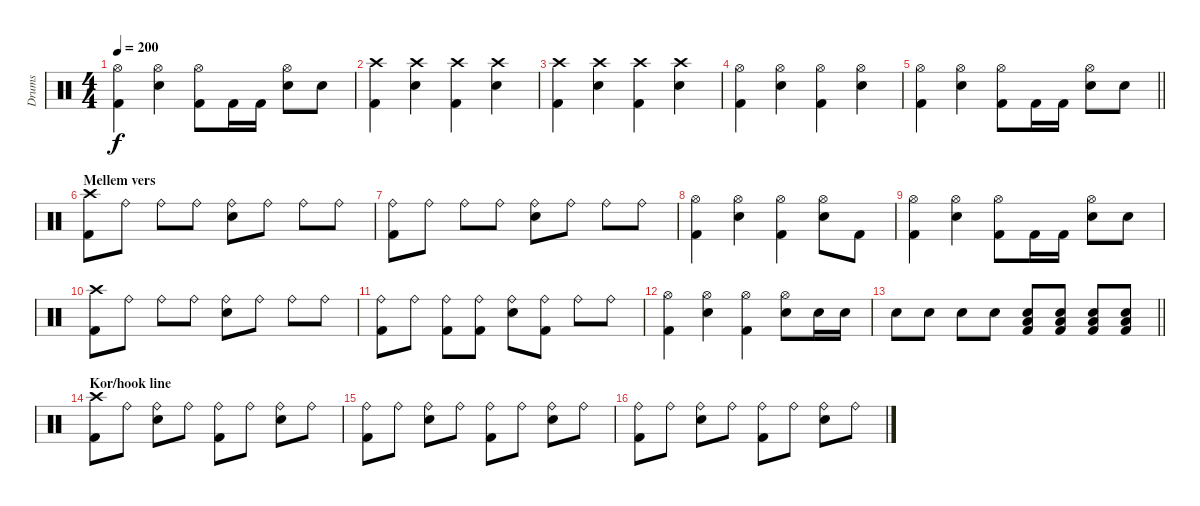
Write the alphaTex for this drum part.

\track ("Drums" "Drums") {instrument percussion}
\staff {score}
\articulation defaults
\ts (4 4)
\tempo 200
\clef neutral
\ks c
("Hi-Hat (open)" "Kick (hit) 2").4{dy f} ("Hi-Hat (open)" "Snare (hit) 2").4 ("Hi-Hat (open)" "Kick (hit) 2").8 "Kick (hit) 2".16 "Kick (hit) 2".16 ("Hi-Hat (open)" "Snare (hit) 2").8 "Snare (hit) 2".8 |
("Crash high (hit)" "Kick (hit) 2").4 ("Crash high (hit)" "Snare (hit) 2").4 ("Crash high (hit)" "Kick (hit) 2").4 ("Crash high (hit)" "Snare (hit) 2").4 |
("Crash high (hit)" "Kick (hit) 2").4 ("Crash high (hit)" "Snare (hit) 2").4 ("Crash high (hit)" "Kick (hit) 2").4 ("Crash high (hit)" "Snare (hit) 2").4 |
("Hi-Hat (open)" "Kick (hit) 2").4 ("Hi-Hat (open)" "Snare (hit) 2").4 ("Hi-Hat (open)" "Kick (hit) 2").4 ("Hi-Hat (open)" "Snare (hit) 2").4 |
\barLineRight lightlight
("Hi-Hat (open)" "Kick (hit) 2").4 ("Hi-Hat (open)" "Snare (hit) 2").4 ("Hi-Hat (open)" "Kick (hit) 2").8 "Kick (hit) 2".16 "Kick (hit) 2".16 ("Hi-Hat (open)" "Snare (hit) 2").8 "Snare (hit) 2".8 |
\section ("" "Mellem vers")
("Crash high (hit)" "Kick (hit) 2").8 "Ride (bell)".8 "Ride (bell)".8 "Ride (bell)".8 ("Ride (bell)" "Snare (hit) 2").8 "Ride (bell)".8 "Ride (bell)".8 "Ride (bell)".8 |
("Ride (bell)" "Kick (hit) 2").8 "Ride (bell)".8 "Ride (bell)".8 "Ride (bell)".8 ("Ride (bell)" "Snare (hit) 2").8 "Ride (bell)".8 "Ride (bell)".8 "Ride (bell)".8 |
("Hi-Hat (open)" "Kick (hit) 2").4 ("Hi-Hat (open)" "Snare (hit) 2").4 ("Hi-Hat (open)" "Kick (hit) 2").4 ("Hi-Hat (open)" "Snare (hit) 2").8 "Kick (hit) 2".8 |
("Hi-Hat (open)" "Kick (hit) 2").4 ("Hi-Hat (open)" "Snare (hit) 2").4 ("Hi-Hat (open)" "Kick (hit) 2").8 "Kick (hit) 2".16 "Kick (hit) 2".16 ("Hi-Hat (open)" "Snare (hit) 2").8 "Snare (hit) 2".8 |
("Crash high (hit)" "Kick (hit) 2").8 "Ride (bell)".8 "Ride (bell)".8 "Ride (bell)".8 ("Ride (bell)" "Snare (hit) 2").8 "Ride (bell)".8 "Ride (bell)".8 "Ride (bell)".8 |
("Ride (bell)" "Kick (hit) 2").8 "Ride (bell)".8 ("Ride (bell)" "Kick (hit) 2").8 ("Ride (bell)" "Kick (hit) 2").8 ("Ride (bell)" "Snare (hit) 2").8 ("Ride (bell)" "Kick (hit) 2").8 "Ride (bell)".8 "Ride (bell)".8 |
("Hi-Hat (open)" "Kick (hit) 2").4 ("Hi-Hat (open)" "Snare (hit) 2").4 ("Hi-Hat (open)" "Kick (hit) 2").4 ("Hi-Hat (open)" "Snare (hit) 2").8 "Snare (hit) 2".16 "Snare (hit) 2".16 |
\barLineRight lightlight "Snare (hit) 2".8 "Snare (hit) 2".8 "Snare (hit) 2".8 "Snare (hit) 2".8
("Low Floor Tom (hit)" "Snare (hit) 2" "Kick (hit) 2").8 ("Low Floor Tom (hit)" "Snare (hit) 2" "Kick (hit) 2").8 ("Low Floor Tom (hit)" "Snare (hit) 2" "Kick (hit) 2").8 ("Low Floor Tom (hit)" "Snare (hit) 2" "Kick (hit) 2").8 |
\section ("" "Kor/hook line")
("Crash high (hit)" "Kick (hit) 2").8 "Ride (bell)".8 ("Ride (bell)" "Snare (hit) 2").8 "Ride (bell)".8 ("Ride (bell)" "Kick (hit) 2").8 "Ride (bell)".8 ("Ride (bell)" "Snare (hit) 2").8 "Ride (bell)".8 |
("Ride (bell)" "Kick (hit) 2").8 "Ride (bell)".8 ("Ride (bell)" "Snare (hit) 2").8 "Ride (bell)".8 ("Ride (bell)" "Kick (hit) 2").8 "Ride (bell)".8 ("Ride (bell)" "Snare (hit) 2").8 "Ride (bell)".8 |
("Ride (bell)" "Kick (hit) 2").8 "Ride (bell)".8 ("Ride (bell)" "Snare (hit) 2").8 "Ride (bell)".8 ("Ride (bell)" "Kick (hit) 2").8 "Ride (bell)".8 ("Ride (bell)" "Snare (hit) 2").8 "Ride (bell)".8
